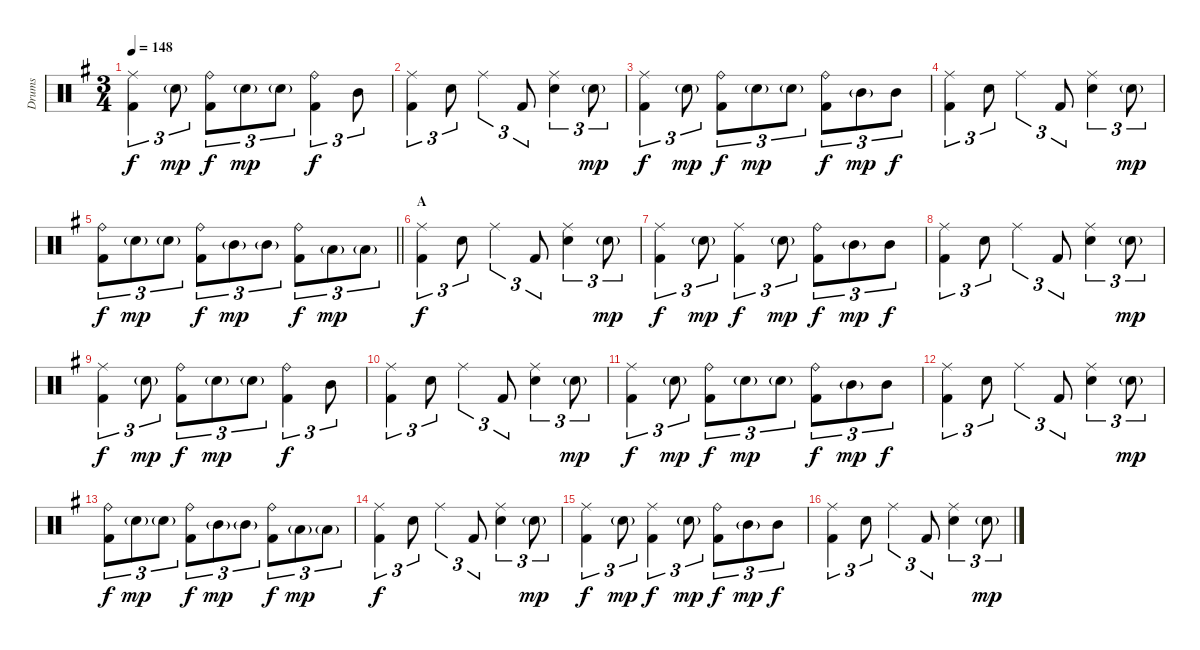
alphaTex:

\track ("Drums" "Drums") {instrument percussion}
\staff {score}
\articulation defaults
\ts (3 4)
\tempo 148
\clef neutral
\ks g
("Ride (middle)" "Kick (hit) 2").4{tu (3 2) dy f} "Electric Snare (hit)"{g}.8{tu (3 2) dy mp} ("Ride (bell)" "Kick (hit) 2").8{tu (3 2) dy f} "Electric Snare (hit)"{g}.8{tu (3 2) dy mp} "Electric Snare (hit)"{g}.8{tu (3 2)} ("Ride (bell)" "Kick (hit) 2").4{tu (3 2) dy f} "Mid Tom (hit)".8{tu (3 2)} |
("Ride (middle)" "Kick (hit) 2").4{tu (3 2)} "Electric Snare (hit)".8{tu (3 2)} "Ride (middle)".4{tu (3 2)} "Kick (hit) 2".8{tu (3 2)} ("Ride (middle)" "Electric Snare (hit)").4{tu (3 2)} "Electric Snare (hit)"{g}.8{tu (3 2) dy mp} |
("Ride (middle)" "Kick (hit) 2").4{tu (3 2) dy f} "Electric Snare (hit)"{g}.8{tu (3 2) dy mp} ("Ride (bell)" "Kick (hit) 2").8{tu (3 2) dy f} "Electric Snare (hit)"{g}.8{tu (3 2) dy mp} "Electric Snare (hit)"{g}.8{tu (3 2)} ("Ride (bell)" "Kick (hit) 2").8{tu (3 2) dy f} "Mid Tom (hit)"{g}.8{tu (3 2) dy mp} "Mid Tom (hit)".8{tu (3 2) dy f} |
("Ride (middle)" "Kick (hit) 2").4{tu (3 2)} "Electric Snare (hit)".8{tu (3 2)} "Ride (middle)".4{tu (3 2)} "Kick (hit) 2".8{tu (3 2)} ("Ride (middle)" "Electric Snare (hit)").4{tu (3 2)} "Electric Snare (hit)"{g}.8{tu (3 2) dy mp} |
\barLineRight lightlight
("Ride (bell)" "Kick (hit) 2").8{tu (3 2) dy f} "Electric Snare (hit)"{g}.8{tu (3 2) dy mp} "Electric Snare (hit)"{g}.8{tu (3 2)} ("Ride (bell)" "Kick (hit) 2").8{tu (3 2) dy f} "Mid Tom (hit)"{g}.8{tu (3 2) dy mp} "Mid Tom (hit)"{g}.8{tu (3 2)} ("Ride (bell)" "Kick (hit) 2").8{tu (3 2) dy f} "Low Tom (hit)"{g}.8{tu (3 2) dy mp} "Low Tom (hit)"{g}.8{tu (3 2)} |
\section ("" "A")
("Ride (middle)" "Kick (hit) 2").4{tu (3 2) dy f} "Electric Snare (hit)".8{tu (3 2)} "Ride (middle)".4{tu (3 2)} "Kick (hit) 2".8{tu (3 2)} ("Ride (middle)" "Electric Snare (hit)").4{tu (3 2)} "Electric Snare (hit)"{g}.8{tu (3 2) dy mp} |
("Ride (middle)" "Kick (hit) 2").4{tu (3 2) dy f} "Electric Snare (hit)"{g}.8{tu (3 2) dy mp} ("Ride (middle)" "Kick (hit) 2").4{tu (3 2) dy f} "Electric Snare (hit)"{g}.8{tu (3 2) dy mp} ("Ride (bell)" "Kick (hit) 2").8{tu (3 2) dy f} "Mid Tom (hit)"{g}.8{tu (3 2) dy mp} "Mid Tom (hit)".8{tu (3 2) dy f} |
("Ride (middle)" "Kick (hit) 2").4{tu (3 2)} "Electric Snare (hit)".8{tu (3 2)} "Ride (middle)".4{tu (3 2)} "Kick (hit) 2".8{tu (3 2)} ("Ride (middle)" "Electric Snare (hit)").4{tu (3 2)} "Electric Snare (hit)"{g}.8{tu (3 2) dy mp} |
("Ride (middle)" "Kick (hit) 2").4{tu (3 2) dy f} "Electric Snare (hit)"{g}.8{tu (3 2) dy mp} ("Ride (bell)" "Kick (hit) 2").8{tu (3 2) dy f} "Electric Snare (hit)"{g}.8{tu (3 2) dy mp} "Electric Snare (hit)"{g}.8{tu (3 2)} ("Ride (bell)" "Kick (hit) 2").4{tu (3 2) dy f} "Mid Tom (hit)".8{tu (3 2)} |
("Ride (middle)" "Kick (hit) 2").4{tu (3 2)} "Electric Snare (hit)".8{tu (3 2)} "Ride (middle)".4{tu (3 2)} "Kick (hit) 2".8{tu (3 2)} ("Ride (middle)" "Electric Snare (hit)").4{tu (3 2)} "Electric Snare (hit)"{g}.8{tu (3 2) dy mp} |
("Ride (middle)" "Kick (hit) 2").4{tu (3 2) dy f} "Electric Snare (hit)"{g}.8{tu (3 2) dy mp} ("Ride (bell)" "Kick (hit) 2").8{tu (3 2) dy f} "Electric Snare (hit)"{g}.8{tu (3 2) dy mp} "Electric Snare (hit)"{g}.8{tu (3 2)} ("Ride (bell)" "Kick (hit) 2").8{tu (3 2) dy f} "Mid Tom (hit)"{g}.8{tu (3 2) dy mp} "Mid Tom (hit)".8{tu (3 2) dy f} |
("Ride (middle)" "Kick (hit) 2").4{tu (3 2)} "Electric Snare (hit)".8{tu (3 2)} "Ride (middle)".4{tu (3 2)} "Kick (hit) 2".8{tu (3 2)} ("Ride (middle)" "Electric Snare (hit)").4{tu (3 2)} "Electric Snare (hit)"{g}.8{tu (3 2) dy mp} |
("Ride (bell)" "Kick (hit) 2").8{tu (3 2) dy f} "Electric Snare (hit)"{g}.8{tu (3 2) dy mp} "Electric Snare (hit)"{g}.8{tu (3 2)} ("Ride (bell)" "Kick (hit) 2").8{tu (3 2) dy f} "Mid Tom (hit)"{g}.8{tu (3 2) dy mp} "Mid Tom (hit)"{g}.8{tu (3 2)} ("Ride (bell)" "Kick (hit) 2").8{tu (3 2) dy f} "Low Tom (hit)"{g}.8{tu (3 2) dy mp} "Low Tom (hit)"{g}.8{tu (3 2)} |
("Ride (middle)" "Kick (hit) 2").4{tu (3 2) dy f} "Electric Snare (hit)".8{tu (3 2)} "Ride (middle)".4{tu (3 2)} "Kick (hit) 2".8{tu (3 2)} ("Ride (middle)" "Electric Snare (hit)").4{tu (3 2)} "Electric Snare (hit)"{g}.8{tu (3 2) dy mp} |
("Ride (middle)" "Kick (hit) 2").4{tu (3 2) dy f} "Electric Snare (hit)"{g}.8{tu (3 2) dy mp} ("Ride (middle)" "Kick (hit) 2").4{tu (3 2) dy f} "Electric Snare (hit)"{g}.8{tu (3 2) dy mp} ("Ride (bell)" "Kick (hit) 2").8{tu (3 2) dy f} "Mid Tom (hit)"{g}.8{tu (3 2) dy mp} "Mid Tom (hit)".8{tu (3 2) dy f} |
("Ride (middle)" "Kick (hit) 2").4{tu (3 2)} "Electric Snare (hit)".8{tu (3 2)} "Ride (middle)".4{tu (3 2)} "Kick (hit) 2".8{tu (3 2)} ("Ride (middle)" "Electric Snare (hit)").4{tu (3 2)} "Electric Snare (hit)"{g}.8{tu (3 2) dy mp}
